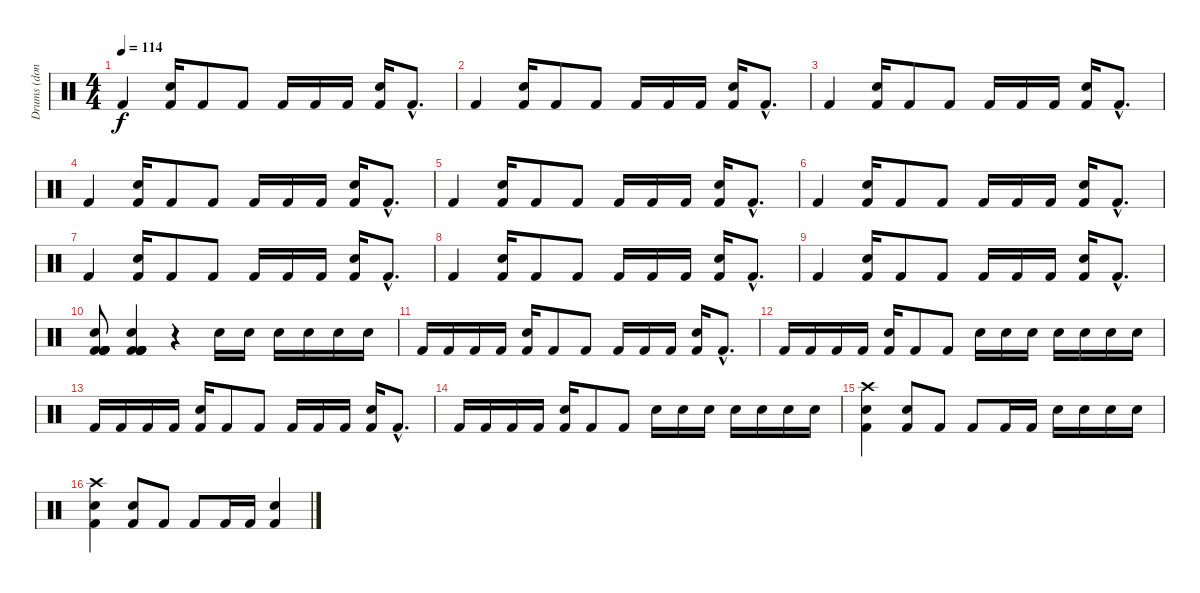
\track ("Drums (done badly)" "Drums (don") {instrument percussion}
\staff {score}
\articulation defaults
\ts (4 4)
\tempo 114
\clef neutral
\ks c "Kick (hit) 2".4{dy f}
("Snare (hit) 2" "Kick (hit) 2").16 "Kick (hit) 2".8 "Kick (hit) 2".8 "Kick (hit) 2".16 "Kick (hit) 2".16 "Kick (hit) 2".16 ("Snare (hit) 2" "Kick (hit) 2").16 "Kick (hit) 2"{hac}.8{d} |
"Kick (hit) 2".4 ("Snare (hit) 2" "Kick (hit) 2").16 "Kick (hit) 2".8 "Kick (hit) 2".8 "Kick (hit) 2".16 "Kick (hit) 2".16 "Kick (hit) 2".16 ("Snare (hit) 2" "Kick (hit) 2").16 "Kick (hit) 2"{hac}.8{d} |
"Kick (hit) 2".4 ("Snare (hit) 2" "Kick (hit) 2").16 "Kick (hit) 2".8 "Kick (hit) 2".8 "Kick (hit) 2".16 "Kick (hit) 2".16 "Kick (hit) 2".16 ("Snare (hit) 2" "Kick (hit) 2").16 "Kick (hit) 2"{hac}.8{d} |
"Kick (hit) 2".4 ("Snare (hit) 2" "Kick (hit) 2").16 "Kick (hit) 2".8 "Kick (hit) 2".8 "Kick (hit) 2".16 "Kick (hit) 2".16 "Kick (hit) 2".16 ("Snare (hit) 2" "Kick (hit) 2").16 "Kick (hit) 2"{hac}.8{d} |
"Kick (hit) 2".4 ("Snare (hit) 2" "Kick (hit) 2").16 "Kick (hit) 2".8 "Kick (hit) 2".8 "Kick (hit) 2".16 "Kick (hit) 2".16 "Kick (hit) 2".16 ("Snare (hit) 2" "Kick (hit) 2").16 "Kick (hit) 2"{hac}.8{d} |
"Kick (hit) 2".4 ("Snare (hit) 2" "Kick (hit) 2").16 "Kick (hit) 2".8 "Kick (hit) 2".8 "Kick (hit) 2".16 "Kick (hit) 2".16 "Kick (hit) 2".16 ("Snare (hit) 2" "Kick (hit) 2").16 "Kick (hit) 2"{hac}.8{d} |
"Kick (hit) 2".4 ("Snare (hit) 2" "Kick (hit) 2").16 "Kick (hit) 2".8 "Kick (hit) 2".8 "Kick (hit) 2".16 "Kick (hit) 2".16 "Kick (hit) 2".16 ("Snare (hit) 2" "Kick (hit) 2").16 "Kick (hit) 2"{hac}.8{d} |
"Kick (hit) 2".4 ("Snare (hit) 2" "Kick (hit) 2").16 "Kick (hit) 2".8 "Kick (hit) 2".8 "Kick (hit) 2".16 "Kick (hit) 2".16 "Kick (hit) 2".16 ("Snare (hit) 2" "Kick (hit) 2").16 "Kick (hit) 2"{hac}.8{d} |
"Kick (hit) 2".4 ("Snare (hit) 2" "Kick (hit) 2").16 "Kick (hit) 2".8 "Kick (hit) 2".8 "Kick (hit) 2".16 "Kick (hit) 2".16 "Kick (hit) 2".16 ("Snare (hit) 2" "Kick (hit) 2").16 "Kick (hit) 2"{hac}.8{d} |
("Kick (hit) 2" "Kick (hit) 2" "Kick (hit) 2" "Snare (hit) 2" "Kick (hit) 2" "Kick (hit) 2").8 ("Kick (hit) 2" "Kick (hit) 2" "Kick (hit) 2" "Snare (hit) 2" "Kick (hit) 2" "Kick (hit) 2").4 r.4 "Snare (hit) 2".16 "Snare (hit) 2".16 "Snare (hit) 2".16 "Snare (hit) 2".16 "Snare (hit) 2".16 "Snare (hit) 2".16 |
"Kick (hit) 2".16 "Kick (hit) 2".16 "Kick (hit) 2".16 "Kick (hit) 2".16 ("Snare (hit) 2" "Kick (hit) 2").16 "Kick (hit) 2".8 "Kick (hit) 2".8 "Kick (hit) 2".16 "Kick (hit) 2".16 "Kick (hit) 2".16 ("Snare (hit) 2" "Kick (hit) 2").16 "Kick (hit) 2"{hac}.8{d} |
"Kick (hit) 2".16 "Kick (hit) 2".16 "Kick (hit) 2".16 "Kick (hit) 2".16 ("Snare (hit) 2" "Kick (hit) 2").16 "Kick (hit) 2".8 "Kick (hit) 2".8 "Snare (hit) 2".16 "Snare (hit) 2".16 "Snare (hit) 2".16 "Snare (hit) 2".16 "Snare (hit) 2".16 "Snare (hit) 2".16 "Snare (hit) 2".16 |
"Kick (hit) 2".16 "Kick (hit) 2".16 "Kick (hit) 2".16 "Kick (hit) 2".16 ("Snare (hit) 2" "Kick (hit) 2").16 "Kick (hit) 2".8 "Kick (hit) 2".8 "Kick (hit) 2".16 "Kick (hit) 2".16 "Kick (hit) 2".16 ("Snare (hit) 2" "Kick (hit) 2").16 "Kick (hit) 2"{hac}.8{d} |
"Kick (hit) 2".16 "Kick (hit) 2".16 "Kick (hit) 2".16 "Kick (hit) 2".16 ("Snare (hit) 2" "Kick (hit) 2").16 "Kick (hit) 2".8 "Kick (hit) 2".8 "Snare (hit) 2".16 "Snare (hit) 2".16 "Snare (hit) 2".16 "Snare (hit) 2".16 "Snare (hit) 2".16 "Snare (hit) 2".16 "Snare (hit) 2".16 |
("Crash high (hit)" "Snare (hit) 2" "Kick (hit) 2").4 ("Snare (hit) 2" "Kick (hit) 2").8 "Kick (hit) 2".8 "Kick (hit) 2".8 "Kick (hit) 2".16 "Kick (hit) 2".16 "Snare (hit) 2".16 "Snare (hit) 2".16 "Snare (hit) 2".16 "Snare (hit) 2".16 |
("Crash high (hit)" "Snare (hit) 2" "Kick (hit) 2").4 ("Snare (hit) 2" "Kick (hit) 2").8 "Kick (hit) 2".8 "Kick (hit) 2".8 "Kick (hit) 2".16 "Kick (hit) 2".16 ("Snare (hit) 2" "Kick (hit) 2").4
